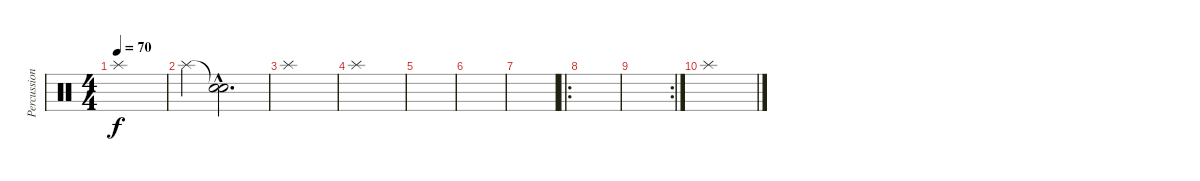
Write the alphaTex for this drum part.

\track ("Percussion" "Percussion") {instrument percussion}
\staff {score}
\articulation defaults
\ts (4 4)
\tempo 70
\clef neutral
\ks c "Splash (hit)".1{dy f}
|
"Splash (hit)".4 ("Snare (hit)"{hac t} "Snare (hit)"{hac t}).2{d} |
"Splash (hit)".1 |
"Splash (hit)".1 |
|
|
|
\ro
|
\rc 2
|
"Splash (hit)".1
